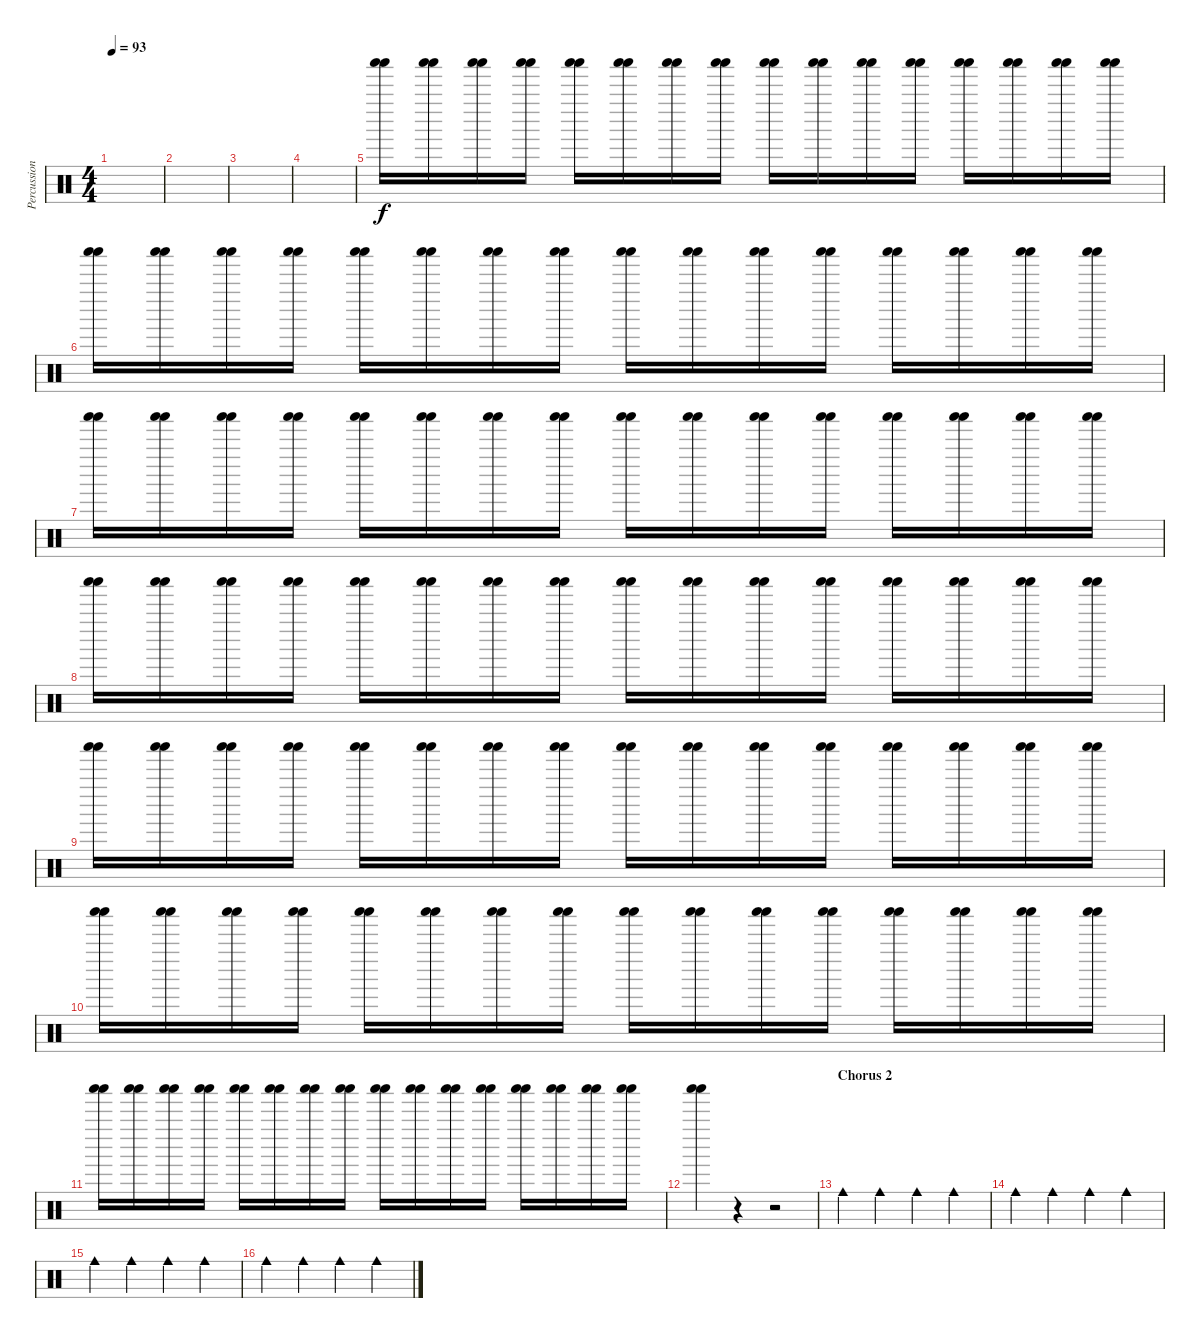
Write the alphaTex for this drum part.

\track ("Percussions" "Percussion") {instrument percussion}
\staff {score}
\articulation defaults
\ts (4 4)
\tempo 93
\clef neutral
\ks c
|
|
|
|
("Shaker (hit)" "Shaker (hit)").16 ("Shaker (hit)" "Shaker (hit)").16 ("Shaker (hit)" "Shaker (hit)").16 ("Shaker (hit)" "Shaker (hit)").16 ("Shaker (hit)" "Shaker (hit)").16 ("Shaker (hit)" "Shaker (hit)").16 ("Shaker (hit)" "Shaker (hit)").16 ("Shaker (hit)" "Shaker (hit)").16 ("Shaker (hit)" "Shaker (hit)").16 ("Shaker (hit)" "Shaker (hit)").16 ("Shaker (hit)" "Shaker (hit)").16 ("Shaker (hit)" "Shaker (hit)").16 ("Shaker (hit)" "Shaker (hit)").16 ("Shaker (hit)" "Shaker (hit)").16 ("Shaker (hit)" "Shaker (hit)").16 ("Shaker (hit)" "Shaker (hit)").16 |
("Shaker (hit)" "Shaker (hit)").16 ("Shaker (hit)" "Shaker (hit)").16 ("Shaker (hit)" "Shaker (hit)").16 ("Shaker (hit)" "Shaker (hit)").16 ("Shaker (hit)" "Shaker (hit)").16 ("Shaker (hit)" "Shaker (hit)").16 ("Shaker (hit)" "Shaker (hit)").16 ("Shaker (hit)" "Shaker (hit)").16 ("Shaker (hit)" "Shaker (hit)").16 ("Shaker (hit)" "Shaker (hit)").16 ("Shaker (hit)" "Shaker (hit)").16 ("Shaker (hit)" "Shaker (hit)").16 ("Shaker (hit)" "Shaker (hit)").16 ("Shaker (hit)" "Shaker (hit)").16 ("Shaker (hit)" "Shaker (hit)").16 ("Shaker (hit)" "Shaker (hit)").16 |
("Shaker (hit)" "Shaker (hit)").16 ("Shaker (hit)" "Shaker (hit)").16 ("Shaker (hit)" "Shaker (hit)").16 ("Shaker (hit)" "Shaker (hit)").16 ("Shaker (hit)" "Shaker (hit)").16 ("Shaker (hit)" "Shaker (hit)").16 ("Shaker (hit)" "Shaker (hit)").16 ("Shaker (hit)" "Shaker (hit)").16 ("Shaker (hit)" "Shaker (hit)").16 ("Shaker (hit)" "Shaker (hit)").16 ("Shaker (hit)" "Shaker (hit)").16 ("Shaker (hit)" "Shaker (hit)").16 ("Shaker (hit)" "Shaker (hit)").16 ("Shaker (hit)" "Shaker (hit)").16 ("Shaker (hit)" "Shaker (hit)").16 ("Shaker (hit)" "Shaker (hit)").16 |
("Shaker (hit)" "Shaker (hit)").16 ("Shaker (hit)" "Shaker (hit)").16 ("Shaker (hit)" "Shaker (hit)").16 ("Shaker (hit)" "Shaker (hit)").16 ("Shaker (hit)" "Shaker (hit)").16 ("Shaker (hit)" "Shaker (hit)").16 ("Shaker (hit)" "Shaker (hit)").16 ("Shaker (hit)" "Shaker (hit)").16 ("Shaker (hit)" "Shaker (hit)").16 ("Shaker (hit)" "Shaker (hit)").16 ("Shaker (hit)" "Shaker (hit)").16 ("Shaker (hit)" "Shaker (hit)").16 ("Shaker (hit)" "Shaker (hit)").16 ("Shaker (hit)" "Shaker (hit)").16 ("Shaker (hit)" "Shaker (hit)").16 ("Shaker (hit)" "Shaker (hit)").16 |
("Shaker (hit)" "Shaker (hit)").16 ("Shaker (hit)" "Shaker (hit)").16 ("Shaker (hit)" "Shaker (hit)").16 ("Shaker (hit)" "Shaker (hit)").16 ("Shaker (hit)" "Shaker (hit)").16 ("Shaker (hit)" "Shaker (hit)").16 ("Shaker (hit)" "Shaker (hit)").16 ("Shaker (hit)" "Shaker (hit)").16 ("Shaker (hit)" "Shaker (hit)").16 ("Shaker (hit)" "Shaker (hit)").16 ("Shaker (hit)" "Shaker (hit)").16 ("Shaker (hit)" "Shaker (hit)").16 ("Shaker (hit)" "Shaker (hit)").16 ("Shaker (hit)" "Shaker (hit)").16 ("Shaker (hit)" "Shaker (hit)").16 ("Shaker (hit)" "Shaker (hit)").16 |
("Shaker (hit)" "Shaker (hit)").16 ("Shaker (hit)" "Shaker (hit)").16 ("Shaker (hit)" "Shaker (hit)").16 ("Shaker (hit)" "Shaker (hit)").16 ("Shaker (hit)" "Shaker (hit)").16 ("Shaker (hit)" "Shaker (hit)").16 ("Shaker (hit)" "Shaker (hit)").16 ("Shaker (hit)" "Shaker (hit)").16 ("Shaker (hit)" "Shaker (hit)").16 ("Shaker (hit)" "Shaker (hit)").16 ("Shaker (hit)" "Shaker (hit)").16 ("Shaker (hit)" "Shaker (hit)").16 ("Shaker (hit)" "Shaker (hit)").16 ("Shaker (hit)" "Shaker (hit)").16 ("Shaker (hit)" "Shaker (hit)").16 ("Shaker (hit)" "Shaker (hit)").16 |
("Shaker (hit)" "Shaker (hit)").16 ("Shaker (hit)" "Shaker (hit)").16 ("Shaker (hit)" "Shaker (hit)").16 ("Shaker (hit)" "Shaker (hit)").16 ("Shaker (hit)" "Shaker (hit)").16 ("Shaker (hit)" "Shaker (hit)").16 ("Shaker (hit)" "Shaker (hit)").16 ("Shaker (hit)" "Shaker (hit)").16 ("Shaker (hit)" "Shaker (hit)").16 ("Shaker (hit)" "Shaker (hit)").16 ("Shaker (hit)" "Shaker (hit)").16 ("Shaker (hit)" "Shaker (hit)").16 ("Shaker (hit)" "Shaker (hit)").16 ("Shaker (hit)" "Shaker (hit)").16 ("Shaker (hit)" "Shaker (hit)").16 ("Shaker (hit)" "Shaker (hit)").16 |
("Shaker (hit)" "Shaker (hit)").4 r.4 r.2 |
\section ("" "Chorus 2")
"Cowbell medium (hit)".4 "Cowbell medium (hit)".4 "Cowbell medium (hit)".4 "Cowbell medium (hit)".4 |
"Cowbell medium (hit)".4 "Cowbell medium (hit)".4 "Cowbell medium (hit)".4 "Cowbell medium (hit)".4 |
"Cowbell medium (hit)".4 "Cowbell medium (hit)".4 "Cowbell medium (hit)".4 "Cowbell medium (hit)".4 |
"Cowbell medium (hit)".4 "Cowbell medium (hit)".4 "Cowbell medium (hit)".4 "Cowbell medium (hit)".4
